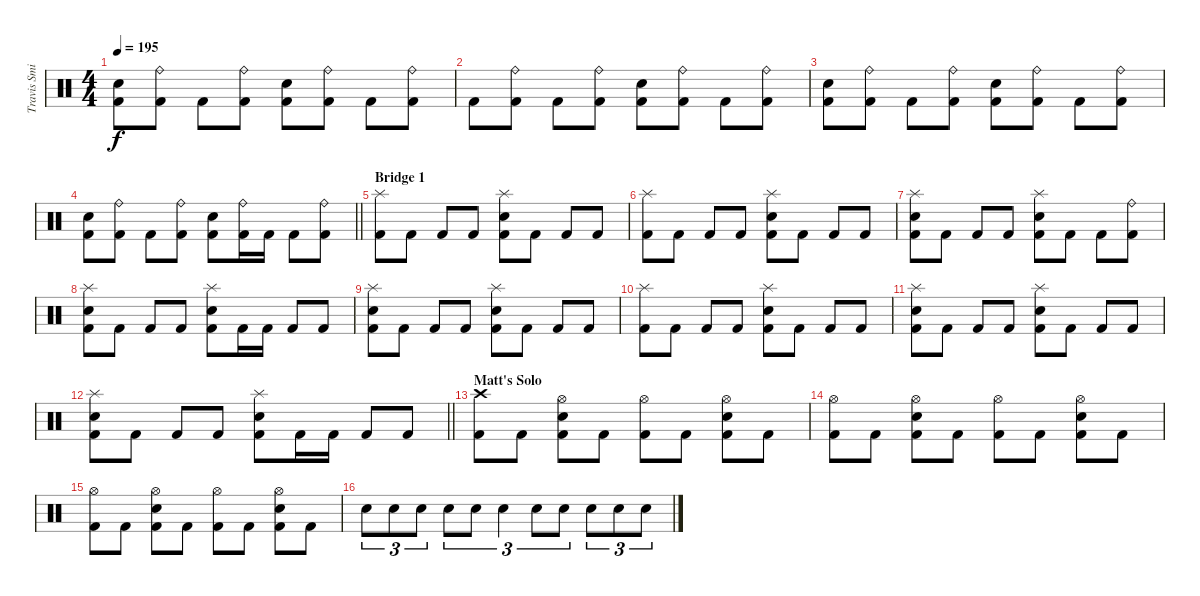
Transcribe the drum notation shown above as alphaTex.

\track ("Travis Smith" "Travis Smi") {instrument percussion}
\staff {score}
\articulation defaults
\ts (4 4)
\tempo 195
\clef neutral
\ks c
("Snare (hit) 2" "Kick (hit) 2").8{dy f} ("Ride (bell)" "Kick (hit) 2").8 "Kick (hit) 2".8 ("Ride (bell)" "Kick (hit) 2").8 ("Snare (hit) 2" "Kick (hit) 2").8 ("Ride (bell)" "Kick (hit) 2").8 "Kick (hit) 2".8 ("Ride (bell)" "Kick (hit) 2").8 |
"Kick (hit) 2".8 ("Ride (bell)" "Kick (hit) 2").8 "Kick (hit) 2".8 ("Ride (bell)" "Kick (hit) 2").8 ("Snare (hit) 2" "Kick (hit) 2").8 ("Ride (bell)" "Kick (hit) 2").8 "Kick (hit) 2".8 ("Ride (bell)" "Kick (hit) 2").8 |
("Snare (hit) 2" "Kick (hit) 2").8 ("Ride (bell)" "Kick (hit) 2").8 "Kick (hit) 2".8 ("Ride (bell)" "Kick (hit) 2").8 ("Snare (hit) 2" "Kick (hit) 2").8 ("Ride (bell)" "Kick (hit) 2").8 "Kick (hit) 2".8 ("Ride (bell)" "Kick (hit) 2").8 |
\barLineRight lightlight
("Snare (hit) 2" "Kick (hit) 2").8 ("Ride (bell)" "Kick (hit) 2").8 "Kick (hit) 2".8 ("Ride (bell)" "Kick (hit) 2").8 ("Snare (hit) 2" "Kick (hit) 2").8 ("Ride (bell)" "Kick (hit) 2").16 "Kick (hit) 2".16 "Kick (hit) 2".8 ("Ride (bell)" "Kick (hit) 2").8 |
\section ("" "Bridge 1")
("Splash (hit)" "Kick (hit) 2").8 "Kick (hit) 2".8 "Kick (hit) 2".8 "Kick (hit) 2".8 ("Splash (hit)" "Snare (hit) 2" "Kick (hit) 2").8 "Kick (hit) 2".8 "Kick (hit) 2".8 "Kick (hit) 2".8 |
("Splash (hit)" "Kick (hit) 2").8 "Kick (hit) 2".8 "Kick (hit) 2".8 "Kick (hit) 2".8 ("Splash (hit)" "Snare (hit) 2" "Kick (hit) 2").8 "Kick (hit) 2".8 "Kick (hit) 2".8 "Kick (hit) 2".8 |
("Splash (hit)" "Snare (hit) 2" "Kick (hit) 2").8 "Kick (hit) 2".8 "Kick (hit) 2".8 "Kick (hit) 2".8 ("Splash (hit)" "Snare (hit) 2" "Kick (hit) 2").8 "Kick (hit) 2".8 "Kick (hit) 2".8 ("Ride (bell)" "Kick (hit) 2").8 |
("Splash (hit)" "Snare (hit) 2" "Kick (hit) 2").8 "Kick (hit) 2".8 "Kick (hit) 2".8 "Kick (hit) 2".8 ("Splash (hit)" "Snare (hit) 2" "Kick (hit) 2").8 "Kick (hit) 2".16 "Kick (hit) 2".16 "Kick (hit) 2".8 "Kick (hit) 2".8 |
("Splash (hit)" "Snare (hit) 2" "Kick (hit) 2").8 "Kick (hit) 2".8 "Kick (hit) 2".8 "Kick (hit) 2".8 ("Splash (hit)" "Snare (hit) 2" "Kick (hit) 2").8 "Kick (hit) 2".8 "Kick (hit) 2".8 "Kick (hit) 2".8 |
("Splash (hit)" "Kick (hit) 2").8 "Kick (hit) 2".8 "Kick (hit) 2".8 "Kick (hit) 2".8 ("Splash (hit)" "Snare (hit) 2" "Kick (hit) 2").8 "Kick (hit) 2".8 "Kick (hit) 2".8 "Kick (hit) 2".8 |
("Splash (hit)" "Snare (hit) 2" "Kick (hit) 2").8 "Kick (hit) 2".8 "Kick (hit) 2".8 "Kick (hit) 2".8 ("Splash (hit)" "Snare (hit) 2" "Kick (hit) 2").8 "Kick (hit) 2".8 "Kick (hit) 2".8 "Kick (hit) 2".8 |
\barLineRight lightlight
("Splash (hit)" "Snare (hit) 2" "Kick (hit) 2").8 "Kick (hit) 2".8 "Kick (hit) 2".8 "Kick (hit) 2".8 ("Splash (hit)" "Snare (hit) 2" "Kick (hit) 2").8 "Kick (hit) 2".16 "Kick (hit) 2".16 "Kick (hit) 2".8 "Kick (hit) 2".8 |
\section ("" "Matt's Solo")
("Crash high (hit)" "Kick (hit) 2").8 "Kick (hit) 2".8 ("Hi-Hat (open)" "Snare (hit) 2" "Kick (hit) 2").8 "Kick (hit) 2".8 ("Hi-Hat (open)" "Kick (hit) 2").8 "Kick (hit) 2".8 ("Hi-Hat (open)" "Snare (hit) 2" "Kick (hit) 2").8 "Kick (hit) 2".8 |
("Hi-Hat (open)" "Kick (hit) 2").8 "Kick (hit) 2".8 ("Hi-Hat (open)" "Snare (hit) 2" "Kick (hit) 2").8 "Kick (hit) 2".8 ("Hi-Hat (open)" "Kick (hit) 2").8 "Kick (hit) 2".8 ("Hi-Hat (open)" "Snare (hit) 2" "Kick (hit) 2").8 "Kick (hit) 2".8 |
("Hi-Hat (open)" "Kick (hit) 2").8 "Kick (hit) 2".8 ("Hi-Hat (open)" "Snare (hit) 2" "Kick (hit) 2").8 "Kick (hit) 2".8 ("Hi-Hat (open)" "Kick (hit) 2").8 "Kick (hit) 2".8 ("Hi-Hat (open)" "Snare (hit) 2" "Kick (hit) 2").8 "Kick (hit) 2".8 |
"Snare (hit) 2".8{tu (3 2)} "Snare (hit) 2".8{tu (3 2)} "Snare (hit) 2".8{tu (3 2)} "Snare (hit) 2".8{tu (3 2)} "Snare (hit) 2".8{tu (3 2)} "Snare (hit) 2".4{tu (3 2)} "Snare (hit) 2".8{tu (3 2)} "Snare (hit) 2".8{tu (3 2)} "Snare (hit) 2".8{tu (3 2)} "Snare (hit) 2".8{tu (3 2)} "Snare (hit) 2".8{tu (3 2)}
